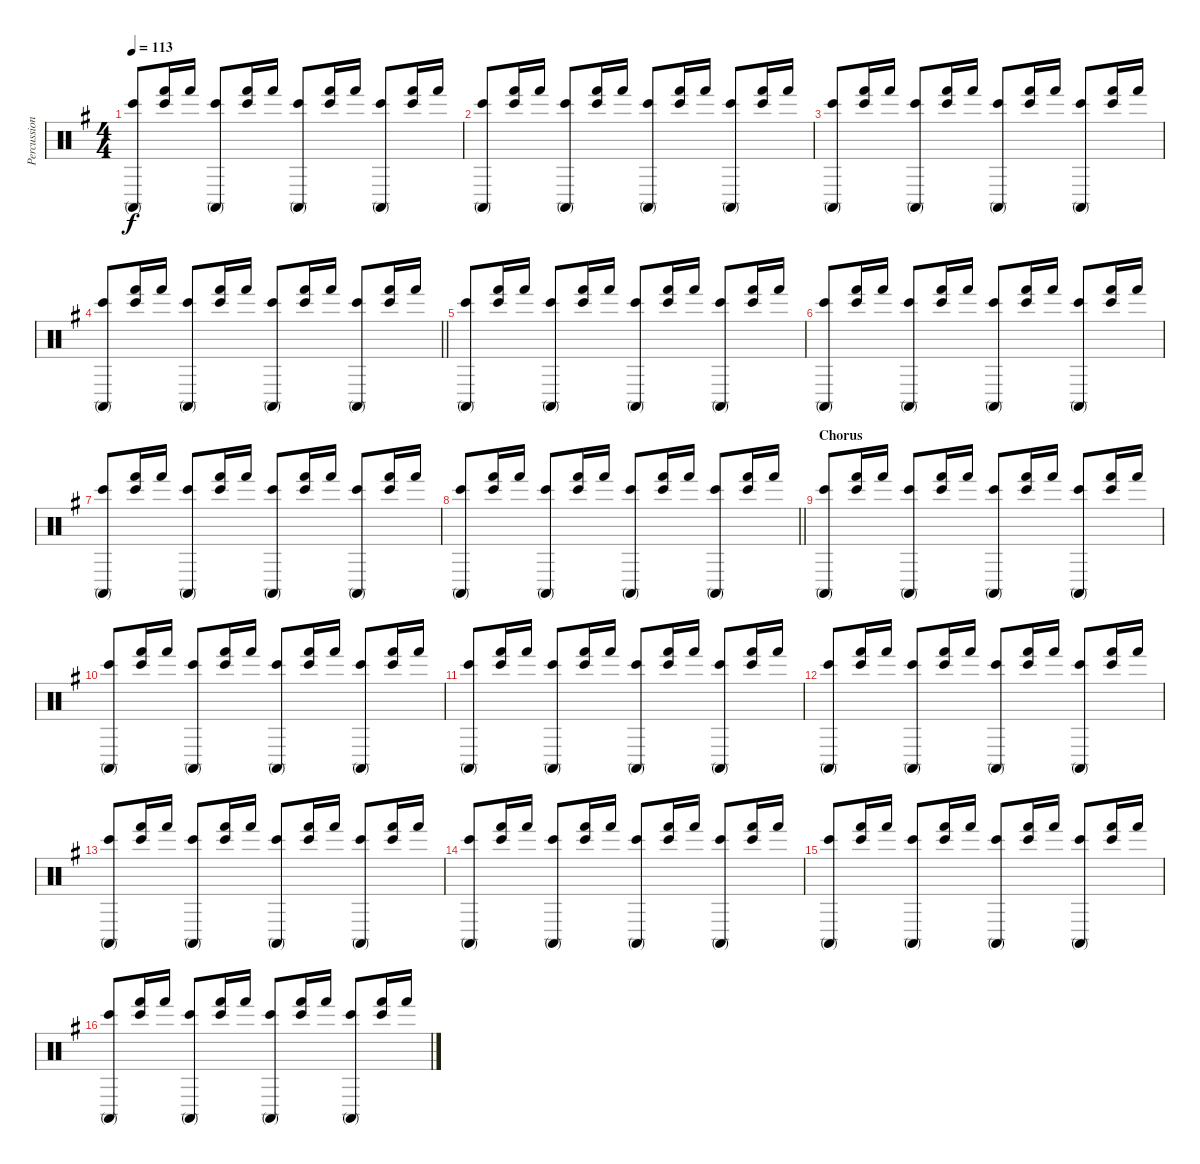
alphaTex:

\track ("Percussion" "Percussion") {instrument percussion}
\staff {score}
\articulation defaults
\ts (4 4)
\tempo 113
\clef neutral
\ks g
("Bongo High (hit)" "Conga high (mute)").8{dy f} ("Bongo High (hit)" "Hand (hit)").16 "Hand (hit)".16 ("Bongo High (hit)" "Conga high (mute)").8 ("Bongo High (hit)" "Hand (hit)").16 "Hand (hit)".16 ("Bongo High (hit)" "Conga high (mute)").8 ("Bongo High (hit)" "Hand (hit)").16 "Hand (hit)".16 ("Bongo High (hit)" "Conga high (mute)").8 ("Bongo High (hit)" "Hand (hit)").16 "Hand (hit)".16 |
("Bongo High (hit)" "Conga high (mute)").8 ("Bongo High (hit)" "Hand (hit)").16 "Hand (hit)".16 ("Bongo High (hit)" "Conga high (mute)").8 ("Bongo High (hit)" "Hand (hit)").16 "Hand (hit)".16 ("Bongo High (hit)" "Conga high (mute)").8 ("Bongo High (hit)" "Hand (hit)").16 "Hand (hit)".16 ("Bongo High (hit)" "Conga high (mute)").8 ("Bongo High (hit)" "Hand (hit)").16 "Hand (hit)".16 |
("Bongo High (hit)" "Conga high (mute)").8 ("Bongo High (hit)" "Hand (hit)").16 "Hand (hit)".16 ("Bongo High (hit)" "Conga high (mute)").8 ("Bongo High (hit)" "Hand (hit)").16 "Hand (hit)".16 ("Bongo High (hit)" "Conga high (mute)").8 ("Bongo High (hit)" "Hand (hit)").16 "Hand (hit)".16 ("Bongo High (hit)" "Conga high (mute)").8 ("Bongo High (hit)" "Hand (hit)").16 "Hand (hit)".16 |
\barLineRight lightlight
("Bongo High (hit)" "Conga high (mute)").8 ("Bongo High (hit)" "Hand (hit)").16 "Hand (hit)".16 ("Bongo High (hit)" "Conga high (mute)").8 ("Bongo High (hit)" "Hand (hit)").16 "Hand (hit)".16 ("Bongo High (hit)" "Conga high (mute)").8 ("Bongo High (hit)" "Hand (hit)").16 "Hand (hit)".16 ("Bongo High (hit)" "Conga high (mute)").8 ("Bongo High (hit)" "Hand (hit)").16 "Hand (hit)".16 |
("Bongo High (hit)" "Conga high (mute)").8 ("Bongo High (hit)" "Hand (hit)").16 "Hand (hit)".16 ("Bongo High (hit)" "Conga high (mute)").8 ("Bongo High (hit)" "Hand (hit)").16 "Hand (hit)".16 ("Bongo High (hit)" "Conga high (mute)").8 ("Bongo High (hit)" "Hand (hit)").16 "Hand (hit)".16 ("Bongo High (hit)" "Conga high (mute)").8 ("Bongo High (hit)" "Hand (hit)").16 "Hand (hit)".16 |
("Bongo High (hit)" "Conga high (mute)").8 ("Bongo High (hit)" "Hand (hit)").16 "Hand (hit)".16 ("Bongo High (hit)" "Conga high (mute)").8 ("Bongo High (hit)" "Hand (hit)").16 "Hand (hit)".16 ("Bongo High (hit)" "Conga high (mute)").8 ("Bongo High (hit)" "Hand (hit)").16 "Hand (hit)".16 ("Bongo High (hit)" "Conga high (mute)").8 ("Bongo High (hit)" "Hand (hit)").16 "Hand (hit)".16 |
("Bongo High (hit)" "Conga high (mute)").8 ("Bongo High (hit)" "Hand (hit)").16 "Hand (hit)".16 ("Bongo High (hit)" "Conga high (mute)").8 ("Bongo High (hit)" "Hand (hit)").16 "Hand (hit)".16 ("Bongo High (hit)" "Conga high (mute)").8 ("Bongo High (hit)" "Hand (hit)").16 "Hand (hit)".16 ("Bongo High (hit)" "Conga high (mute)").8 ("Bongo High (hit)" "Hand (hit)").16 "Hand (hit)".16 |
\barLineRight lightlight
("Bongo High (hit)" "Conga high (mute)").8 ("Bongo High (hit)" "Hand (hit)").16 "Hand (hit)".16 ("Bongo High (hit)" "Conga high (mute)").8 ("Bongo High (hit)" "Hand (hit)").16 "Hand (hit)".16 ("Bongo High (hit)" "Conga high (mute)").8 ("Bongo High (hit)" "Hand (hit)").16 "Hand (hit)".16 ("Bongo High (hit)" "Conga high (mute)").8 ("Bongo High (hit)" "Hand (hit)").16 "Hand (hit)".16 |
\section ("" "Chorus")
("Bongo High (hit)" "Conga high (mute)").8 ("Bongo High (hit)" "Hand (hit)").16 "Hand (hit)".16 ("Bongo High (hit)" "Conga high (mute)").8 ("Bongo High (hit)" "Hand (hit)").16 "Hand (hit)".16 ("Bongo High (hit)" "Conga high (mute)").8 ("Bongo High (hit)" "Hand (hit)").16 "Hand (hit)".16 ("Bongo High (hit)" "Conga high (mute)").8 ("Bongo High (hit)" "Hand (hit)").16 "Hand (hit)".16 |
("Bongo High (hit)" "Conga high (mute)").8 ("Bongo High (hit)" "Hand (hit)").16 "Hand (hit)".16 ("Bongo High (hit)" "Conga high (mute)").8 ("Bongo High (hit)" "Hand (hit)").16 "Hand (hit)".16 ("Bongo High (hit)" "Conga high (mute)").8 ("Bongo High (hit)" "Hand (hit)").16 "Hand (hit)".16 ("Bongo High (hit)" "Conga high (mute)").8 ("Bongo High (hit)" "Hand (hit)").16 "Hand (hit)".16 |
("Bongo High (hit)" "Conga high (mute)").8 ("Bongo High (hit)" "Hand (hit)").16 "Hand (hit)".16 ("Bongo High (hit)" "Conga high (mute)").8 ("Bongo High (hit)" "Hand (hit)").16 "Hand (hit)".16 ("Bongo High (hit)" "Conga high (mute)").8 ("Bongo High (hit)" "Hand (hit)").16 "Hand (hit)".16 ("Bongo High (hit)" "Conga high (mute)").8 ("Bongo High (hit)" "Hand (hit)").16 "Hand (hit)".16 |
("Bongo High (hit)" "Conga high (mute)").8 ("Bongo High (hit)" "Hand (hit)").16 "Hand (hit)".16 ("Bongo High (hit)" "Conga high (mute)").8 ("Bongo High (hit)" "Hand (hit)").16 "Hand (hit)".16 ("Bongo High (hit)" "Conga high (mute)").8 ("Bongo High (hit)" "Hand (hit)").16 "Hand (hit)".16 ("Bongo High (hit)" "Conga high (mute)").8 ("Bongo High (hit)" "Hand (hit)").16 "Hand (hit)".16 |
("Bongo High (hit)" "Conga high (mute)").8 ("Bongo High (hit)" "Hand (hit)").16 "Hand (hit)".16 ("Bongo High (hit)" "Conga high (mute)").8 ("Bongo High (hit)" "Hand (hit)").16 "Hand (hit)".16 ("Bongo High (hit)" "Conga high (mute)").8 ("Bongo High (hit)" "Hand (hit)").16 "Hand (hit)".16 ("Bongo High (hit)" "Conga high (mute)").8 ("Bongo High (hit)" "Hand (hit)").16 "Hand (hit)".16 |
("Bongo High (hit)" "Conga high (mute)").8 ("Bongo High (hit)" "Hand (hit)").16 "Hand (hit)".16 ("Bongo High (hit)" "Conga high (mute)").8 ("Bongo High (hit)" "Hand (hit)").16 "Hand (hit)".16 ("Bongo High (hit)" "Conga high (mute)").8 ("Bongo High (hit)" "Hand (hit)").16 "Hand (hit)".16 ("Bongo High (hit)" "Conga high (mute)").8 ("Bongo High (hit)" "Hand (hit)").16 "Hand (hit)".16 |
("Bongo High (hit)" "Conga high (mute)").8 ("Bongo High (hit)" "Hand (hit)").16 "Hand (hit)".16 ("Bongo High (hit)" "Conga high (mute)").8 ("Bongo High (hit)" "Hand (hit)").16 "Hand (hit)".16 ("Bongo High (hit)" "Conga high (mute)").8 ("Bongo High (hit)" "Hand (hit)").16 "Hand (hit)".16 ("Bongo High (hit)" "Conga high (mute)").8 ("Bongo High (hit)" "Hand (hit)").16 "Hand (hit)".16 |
("Bongo High (hit)" "Conga high (mute)").8 ("Bongo High (hit)" "Hand (hit)").16 "Hand (hit)".16 ("Bongo High (hit)" "Conga high (mute)").8 ("Bongo High (hit)" "Hand (hit)").16 "Hand (hit)".16 ("Bongo High (hit)" "Conga high (mute)").8 ("Bongo High (hit)" "Hand (hit)").16 "Hand (hit)".16 ("Bongo High (hit)" "Conga high (mute)").8 ("Bongo High (hit)" "Hand (hit)").16 "Hand (hit)".16
